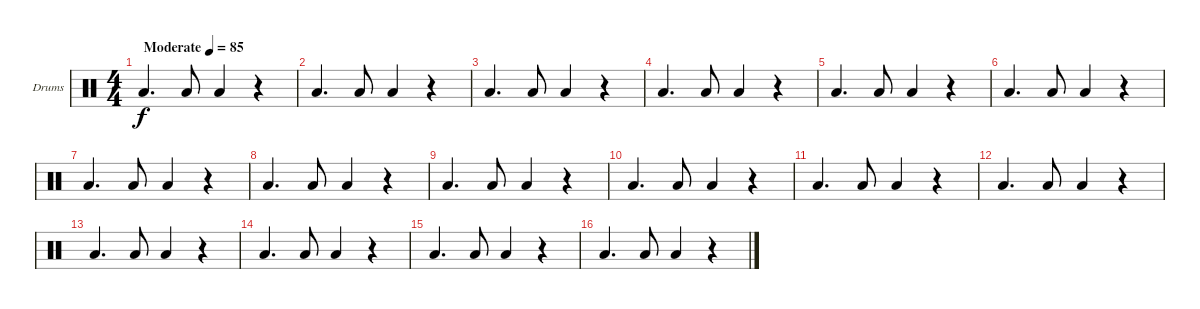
\bracketExtendMode groupsimilarinstruments
\firstSystemTrackNameOrientation horizontal
\otherSystemsTrackNameOrientation horizontal
\track ("Drumkit" "Drums") {instrument percussion}
\staff {score}
\articulation defaults
\ts (4 4)
\beaming (8 2 2 2 2)
\tempo (85 "Moderate")
\clef neutral
\ks c "Low Tom (hit)".4{d dy f} "Low Tom (hit)".8 "Low Tom (hit)".4
r.4 |
"Low Tom (hit)".4{d} "Low Tom (hit)".8 "Low Tom (hit)".4 r.4 |
"Low Tom (hit)".4{d} "Low Tom (hit)".8 "Low Tom (hit)".4 r.4 |
"Low Tom (hit)".4{d} "Low Tom (hit)".8 "Low Tom (hit)".4 r.4 |
"Low Tom (hit)".4{d} "Low Tom (hit)".8 "Low Tom (hit)".4 r.4 |
"Low Tom (hit)".4{d} "Low Tom (hit)".8 "Low Tom (hit)".4 r.4 |
"Low Tom (hit)".4{d} "Low Tom (hit)".8 "Low Tom (hit)".4 r.4 |
"Low Tom (hit)".4{d} "Low Tom (hit)".8 "Low Tom (hit)".4 r.4 |
"Low Tom (hit)".4{d} "Low Tom (hit)".8 "Low Tom (hit)".4 r.4 |
"Low Tom (hit)".4{d} "Low Tom (hit)".8 "Low Tom (hit)".4 r.4 |
"Low Tom (hit)".4{d} "Low Tom (hit)".8 "Low Tom (hit)".4 r.4 |
"Low Tom (hit)".4{d} "Low Tom (hit)".8 "Low Tom (hit)".4 r.4 |
"Low Tom (hit)".4{d} "Low Tom (hit)".8 "Low Tom (hit)".4 r.4 |
"Low Tom (hit)".4{d} "Low Tom (hit)".8 "Low Tom (hit)".4 r.4 |
"Low Tom (hit)".4{d} "Low Tom (hit)".8 "Low Tom (hit)".4 r.4 |
"Low Tom (hit)".4{d} "Low Tom (hit)".8 "Low Tom (hit)".4 r.4
